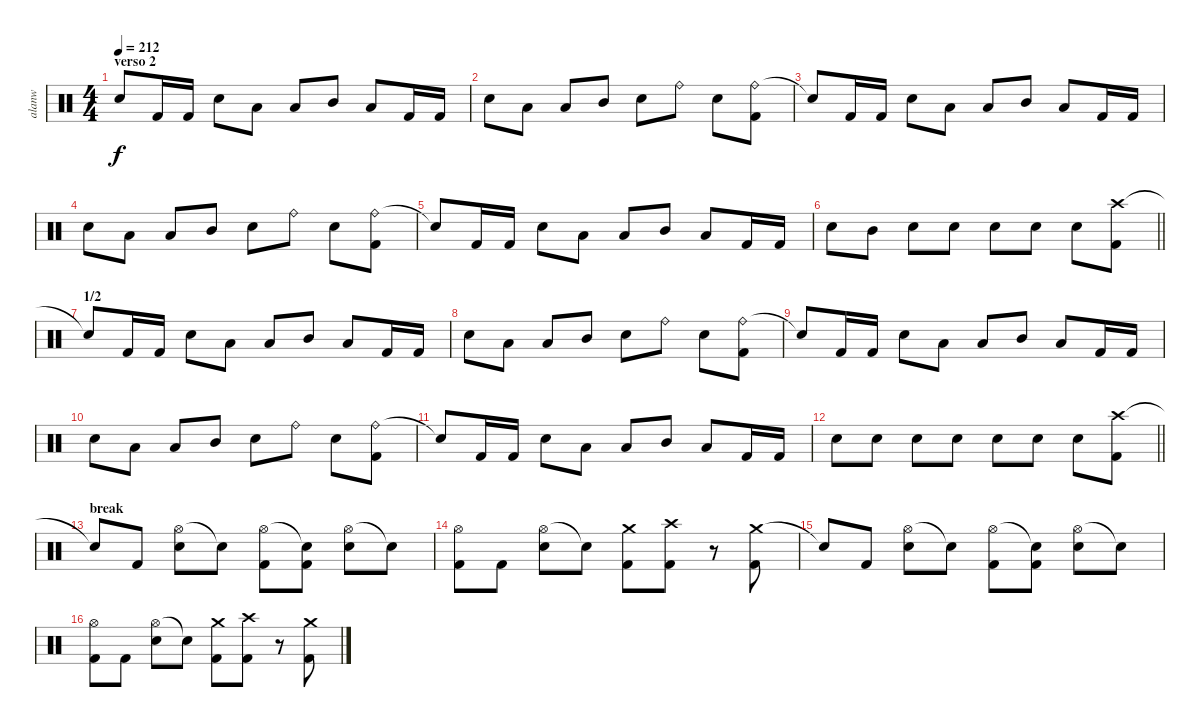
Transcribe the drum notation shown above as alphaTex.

\track ("alanw" "alanw") {instrument percussion}
\staff {score}
\articulation defaults
\ts (4 4)
\section ("" "verso 2")
\tempo 212
\clef neutral
\ks c "Snare (hit)"{t}.8{dy f} "Kick (hit) 2".16 "Kick (hit) 2".16 "Electric Snare (hit)".8 "Low Tom (hit)".8 "Low Tom (hit)".8 "Mid Tom (hit)".8 "Low Tom (hit)".8 "Kick (hit) 2".16 "Kick (hit) 2".16
|
"Electric Snare (hit)".8 "Low Tom (hit)".8 "Low Tom (hit)".8 "Mid Tom (hit)".8 "Electric Snare (hit)".8 "Ride (bell)".8 "Electric Snare (hit)".8 ("Ride (bell)" "Kick (hit) 2").8 |
"Snare (hit)"{t}.8 "Kick (hit) 2".16 "Kick (hit) 2".16 "Electric Snare (hit)".8 "Low Tom (hit)".8 "Low Tom (hit)".8 "Mid Tom (hit)".8 "Low Tom (hit)".8 "Kick (hit) 2".16 "Kick (hit) 2".16 |
"Electric Snare (hit)".8 "Low Tom (hit)".8 "Low Tom (hit)".8 "Mid Tom (hit)".8 "Electric Snare (hit)".8 "Ride (bell)".8 "Electric Snare (hit)".8 ("Ride (bell)" "Kick (hit) 2").8 |
"Snare (hit)"{t}.8 "Kick (hit) 2".16 "Kick (hit) 2".16 "Electric Snare (hit)".8 "Low Tom (hit)".8 "Low Tom (hit)".8 "Mid Tom (hit)".8 "Low Tom (hit)".8 "Kick (hit) 2".16 "Kick (hit) 2".16 |
\barLineRight lightlight "Electric Snare (hit)".8 "Mid Tom (hit)".8 "Electric Snare (hit)".8 "Electric Snare (hit)".8 "Electric Snare (hit)".8 "Electric Snare (hit)".8 "Electric Snare (hit)".8
("Crash high (hit)" "Kick (hit) 2").8 |
\section ("" "1/2")
"Snare (hit)"{t}.8 "Kick (hit) 2".16 "Kick (hit) 2".16 "Electric Snare (hit)".8 "Low Tom (hit)".8 "Low Tom (hit)".8 "Mid Tom (hit)".8 "Low Tom (hit)".8 "Kick (hit) 2".16 "Kick (hit) 2".16 |
"Electric Snare (hit)".8 "Low Tom (hit)".8 "Low Tom (hit)".8 "Mid Tom (hit)".8 "Electric Snare (hit)".8 "Ride (bell)".8 "Electric Snare (hit)".8 ("Ride (bell)" "Kick (hit) 2").8 |
"Snare (hit)"{t}.8 "Kick (hit) 2".16 "Kick (hit) 2".16 "Electric Snare (hit)".8 "Low Tom (hit)".8 "Low Tom (hit)".8 "Mid Tom (hit)".8 "Low Tom (hit)".8 "Kick (hit) 2".16 "Kick (hit) 2".16 |
"Electric Snare (hit)".8 "Low Tom (hit)".8 "Low Tom (hit)".8 "Mid Tom (hit)".8 "Electric Snare (hit)".8 "Ride (bell)".8 "Electric Snare (hit)".8 ("Ride (bell)" "Kick (hit) 2").8 |
"Snare (hit)"{t}.8 "Kick (hit) 2".16 "Kick (hit) 2".16 "Electric Snare (hit)".8 "Low Tom (hit)".8 "Low Tom (hit)".8 "Mid Tom (hit)".8 "Low Tom (hit)".8 "Kick (hit) 2".16 "Kick (hit) 2".16 |
\barLineRight lightlight "Electric Snare (hit)".8 "Electric Snare (hit)".8 "Electric Snare (hit)".8 "Electric Snare (hit)".8 "Electric Snare (hit)".8 "Electric Snare (hit)".8 "Electric Snare (hit)".8
("Crash high (hit)" "Kick (hit) 2").8 |
\section ("" "break")
"Snare (hit)"{t}.8 "Kick (hit) 2".8 ("Hi-Hat (open)" "Electric Snare (hit)").8 "Snare (hit)"{t}.8 ("Hi-Hat (open)" "Kick (hit) 2").8 ("Snare (hit)"{t} "Kick (hit) 2").8 ("Hi-Hat (open)" "Electric Snare (hit)").8 "Snare (hit)"{t}.8 |
("Hi-Hat (open)" "Kick (hit) 2").8 "Kick (hit) 2".8 ("Hi-Hat (open)" "Electric Snare (hit)").8 "Snare (hit)"{t}.8 ("Crash medium (hit)" "Kick (hit) 2").8 ("Crash high (hit)" "Kick (hit) 2").8 r.8 ("Crash medium (hit)" "Kick (hit) 2").8 |
"Snare (hit)"{t}.8 "Kick (hit) 2".8 ("Hi-Hat (open)" "Electric Snare (hit)").8 "Snare (hit)"{t}.8 ("Hi-Hat (open)" "Kick (hit) 2").8 ("Snare (hit)"{t} "Kick (hit) 2").8 ("Hi-Hat (open)" "Electric Snare (hit)").8 "Snare (hit)"{t}.8 |
("Hi-Hat (open)" "Kick (hit) 2").8 "Kick (hit) 2".8 ("Hi-Hat (open)" "Electric Snare (hit)").8 "Snare (hit)"{t}.8 ("Crash medium (hit)" "Kick (hit) 2").8 ("Crash high (hit)" "Kick (hit) 2").8 r.8 ("Crash medium (hit)" "Kick (hit) 2").8
